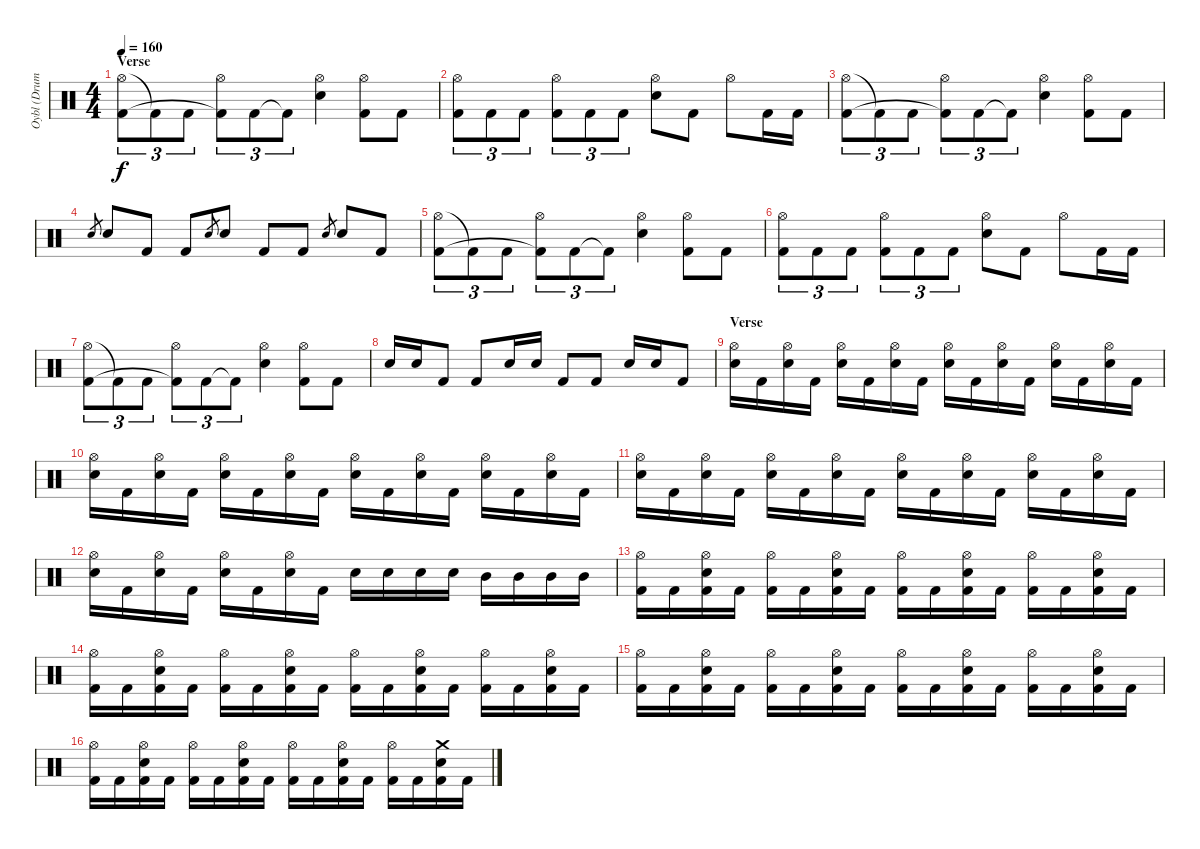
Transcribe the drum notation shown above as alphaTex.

\track ("Oybl (Drums)" "Oybl (Drum") {instrument percussion}
\staff {score}
\articulation defaults
\ts (4 4)
\section ("" "Verse")
\tempo 160
\clef neutral
\ks c
("Hi-Hat (open)" "Kick (hit) 2").8{tu (3 2) dy f} "Kick (hit) 2"{t}.8{tu (3 2)} "Kick (hit) 2".8{tu (3 2)} ("Hi-Hat (open)" "Kick (hit) 2"{t}).8{tu (3 2)} "Kick (hit) 2".8{tu (3 2)} "Kick (hit) 2"{t}.8{tu (3 2)} ("Hi-Hat (open)" "Snare (hit) 2").4 ("Hi-Hat (open)" "Kick (hit) 2").8 "Kick (hit) 2".8 |
("Hi-Hat (open)" "Kick (hit) 2").8{tu (3 2)} "Kick (hit) 2".8{tu (3 2)} "Kick (hit) 2".8{tu (3 2)} ("Hi-Hat (open)" "Kick (hit) 2").8{tu (3 2)} "Kick (hit) 2".8{tu (3 2)} "Kick (hit) 2".8{tu (3 2)} ("Hi-Hat (open)" "Snare (hit) 2").8 "Kick (hit) 2".8 "Hi-Hat (open)".8 "Kick (hit) 2".16 "Kick (hit) 2".16 |
("Hi-Hat (open)" "Kick (hit) 2").8{tu (3 2)} "Kick (hit) 2"{t}.8{tu (3 2)} "Kick (hit) 2".8{tu (3 2)} ("Hi-Hat (open)" "Kick (hit) 2"{t}).8{tu (3 2)} "Kick (hit) 2".8{tu (3 2)} "Kick (hit) 2"{t}.8{tu (3 2)} ("Hi-Hat (open)" "Snare (hit) 2").4 ("Hi-Hat (open)" "Kick (hit) 2").8 "Kick (hit) 2".8 |
"Snare (hit) 2".8{gr} "Snare (hit) 2".8 "Kick (hit) 2".8 "Kick (hit) 2".8 "Snare (hit) 2".8{gr} "Snare (hit) 2".8 "Kick (hit) 2".8 "Kick (hit) 2".8 "Snare (hit) 2".8{gr} "Snare (hit) 2".8 "Kick (hit) 2".8 |
("Hi-Hat (open)" "Kick (hit) 2").8{tu (3 2)} "Kick (hit) 2"{t}.8{tu (3 2)} "Kick (hit) 2".8{tu (3 2)} ("Hi-Hat (open)" "Kick (hit) 2"{t}).8{tu (3 2)} "Kick (hit) 2".8{tu (3 2)} "Kick (hit) 2"{t}.8{tu (3 2)} ("Hi-Hat (open)" "Snare (hit) 2").4 ("Hi-Hat (open)" "Kick (hit) 2").8 "Kick (hit) 2".8 |
("Hi-Hat (open)" "Kick (hit) 2").8{tu (3 2)} "Kick (hit) 2".8{tu (3 2)} "Kick (hit) 2".8{tu (3 2)} ("Hi-Hat (open)" "Kick (hit) 2").8{tu (3 2)} "Kick (hit) 2".8{tu (3 2)} "Kick (hit) 2".8{tu (3 2)} ("Hi-Hat (open)" "Snare (hit) 2").8 "Kick (hit) 2".8 "Hi-Hat (open)".8 "Kick (hit) 2".16 "Kick (hit) 2".16 |
("Hi-Hat (open)" "Kick (hit) 2").8{tu (3 2)} "Kick (hit) 2"{t}.8{tu (3 2)} "Kick (hit) 2".8{tu (3 2)} ("Hi-Hat (open)" "Kick (hit) 2"{t}).8{tu (3 2)} "Kick (hit) 2".8{tu (3 2)} "Kick (hit) 2"{t}.8{tu (3 2)} ("Hi-Hat (open)" "Snare (hit) 2").4 ("Hi-Hat (open)" "Kick (hit) 2").8 "Kick (hit) 2".8 |
"Snare (hit) 2".16 "Snare (hit) 2".16 "Kick (hit) 2".8 "Kick (hit) 2".8 "Snare (hit) 2".16 "Snare (hit) 2".16 "Kick (hit) 2".8 "Kick (hit) 2".8 "Snare (hit) 2".16 "Snare (hit) 2".16 "Kick (hit) 2".8 |
\section ("" "Verse")
("Hi-Hat (open)" "Snare (hit) 2").16 "Kick (hit) 2".16 ("Hi-Hat (open)" "Snare (hit) 2").16 "Kick (hit) 2".16 ("Hi-Hat (open)" "Snare (hit) 2").16 "Kick (hit) 2".16 ("Hi-Hat (open)" "Snare (hit) 2").16 "Kick (hit) 2".16 ("Hi-Hat (open)" "Snare (hit) 2").16 "Kick (hit) 2".16 ("Hi-Hat (open)" "Snare (hit) 2").16 "Kick (hit) 2".16 ("Hi-Hat (open)" "Snare (hit) 2").16 "Kick (hit) 2".16 ("Hi-Hat (open)" "Snare (hit) 2").16 "Kick (hit) 2".16 |
("Hi-Hat (open)" "Snare (hit) 2").16 "Kick (hit) 2".16 ("Hi-Hat (open)" "Snare (hit) 2").16 "Kick (hit) 2".16 ("Hi-Hat (open)" "Snare (hit) 2").16 "Kick (hit) 2".16 ("Hi-Hat (open)" "Snare (hit) 2").16 "Kick (hit) 2".16 ("Hi-Hat (open)" "Snare (hit) 2").16 "Kick (hit) 2".16 ("Hi-Hat (open)" "Snare (hit) 2").16 "Kick (hit) 2".16 ("Hi-Hat (open)" "Snare (hit) 2").16 "Kick (hit) 2".16 ("Hi-Hat (open)" "Snare (hit) 2").16 "Kick (hit) 2".16 |
("Hi-Hat (open)" "Snare (hit) 2").16 "Kick (hit) 2".16 ("Hi-Hat (open)" "Snare (hit) 2").16 "Kick (hit) 2".16 ("Hi-Hat (open)" "Snare (hit) 2").16 "Kick (hit) 2".16 ("Hi-Hat (open)" "Snare (hit) 2").16 "Kick (hit) 2".16 ("Hi-Hat (open)" "Snare (hit) 2").16 "Kick (hit) 2".16 ("Hi-Hat (open)" "Snare (hit) 2").16 "Kick (hit) 2".16 ("Hi-Hat (open)" "Snare (hit) 2").16 "Kick (hit) 2".16 ("Hi-Hat (open)" "Snare (hit) 2").16 "Kick (hit) 2".16 |
("Hi-Hat (open)" "Snare (hit) 2").16 "Kick (hit) 2".16 ("Hi-Hat (open)" "Snare (hit) 2").16 "Kick (hit) 2".16 ("Hi-Hat (open)" "Snare (hit) 2").16 "Kick (hit) 2".16 ("Hi-Hat (open)" "Snare (hit) 2").16 "Kick (hit) 2".16 "Snare (hit) 2".16 "Snare (hit) 2".16 "Snare (hit) 2".16 "Snare (hit) 2".16 "Mid Tom (hit)".16 "Mid Tom (hit)".16 "Mid Tom (hit)".16 "Mid Tom (hit)".16 |
("Hi-Hat (open)" "Kick (hit) 2").16 "Kick (hit) 2".16 ("Hi-Hat (open)" "Snare (hit) 2" "Kick (hit) 2").16 "Kick (hit) 2".16 ("Hi-Hat (open)" "Kick (hit) 2").16 "Kick (hit) 2".16 ("Hi-Hat (open)" "Snare (hit) 2" "Kick (hit) 2").16 "Kick (hit) 2".16 ("Hi-Hat (open)" "Kick (hit) 2").16 "Kick (hit) 2".16 ("Hi-Hat (open)" "Snare (hit) 2" "Kick (hit) 2").16 "Kick (hit) 2".16 ("Hi-Hat (open)" "Kick (hit) 2").16 "Kick (hit) 2".16 ("Hi-Hat (open)" "Snare (hit) 2" "Kick (hit) 2").16 "Kick (hit) 2".16 |
("Hi-Hat (open)" "Kick (hit) 2").16 "Kick (hit) 2".16 ("Hi-Hat (open)" "Snare (hit) 2" "Kick (hit) 2").16 "Kick (hit) 2".16 ("Hi-Hat (open)" "Kick (hit) 2").16 "Kick (hit) 2".16 ("Hi-Hat (open)" "Snare (hit) 2" "Kick (hit) 2").16 "Kick (hit) 2".16 ("Hi-Hat (open)" "Kick (hit) 2").16 "Kick (hit) 2".16 ("Hi-Hat (open)" "Snare (hit) 2" "Kick (hit) 2").16 "Kick (hit) 2".16 ("Hi-Hat (open)" "Kick (hit) 2").16 "Kick (hit) 2".16 ("Hi-Hat (open)" "Snare (hit) 2" "Kick (hit) 2").16 "Kick (hit) 2".16 |
("Hi-Hat (open)" "Kick (hit) 2").16 "Kick (hit) 2".16 ("Hi-Hat (open)" "Snare (hit) 2" "Kick (hit) 2").16 "Kick (hit) 2".16 ("Hi-Hat (open)" "Kick (hit) 2").16 "Kick (hit) 2".16 ("Hi-Hat (open)" "Snare (hit) 2" "Kick (hit) 2").16 "Kick (hit) 2".16 ("Hi-Hat (open)" "Kick (hit) 2").16 "Kick (hit) 2".16 ("Hi-Hat (open)" "Snare (hit) 2" "Kick (hit) 2").16 "Kick (hit) 2".16 ("Hi-Hat (open)" "Kick (hit) 2").16 "Kick (hit) 2".16 ("Hi-Hat (open)" "Snare (hit) 2" "Kick (hit) 2").16 "Kick (hit) 2".16 |
("Hi-Hat (open)" "Kick (hit) 2").16 "Kick (hit) 2".16 ("Hi-Hat (open)" "Snare (hit) 2" "Kick (hit) 2").16 "Kick (hit) 2".16 ("Hi-Hat (open)" "Kick (hit) 2").16 "Kick (hit) 2".16 ("Hi-Hat (open)" "Snare (hit) 2" "Kick (hit) 2").16 "Kick (hit) 2".16 ("Hi-Hat (open)" "Kick (hit) 2").16 "Kick (hit) 2".16 ("Hi-Hat (open)" "Snare (hit) 2" "Kick (hit) 2").16 "Kick (hit) 2".16 ("Hi-Hat (open)" "Kick (hit) 2").16 "Kick (hit) 2".16 ("Crash medium (hit)" "Snare (hit) 2" "Kick (hit) 2").16 "Kick (hit) 2".16
